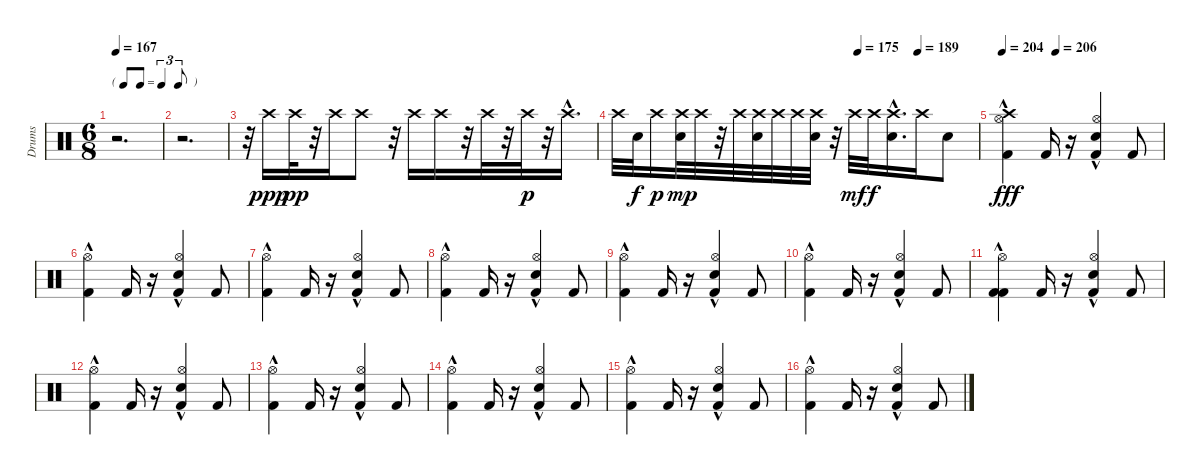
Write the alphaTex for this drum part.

\track ("Drums" "Drums") {instrument percussion}
\staff {score}
\articulation defaults
\ts (6 8)
\tf triplet8th
\tempo 167
\clef neutral
\ks c
r.2{d dy fff} |
r.2{d} |
r.32 "Crash high (hit)".16{dy ppp} "Crash high (hit)".32{dy pp} r.32 "Crash high (hit)".16 "Crash high (hit)".8 r.32 "Crash high (hit)".16 "Crash high (hit)".16 r.32 "Crash high (hit)".32 r.32 "Crash high (hit)".32{dy p} r.32 "Crash high (hit)"{hac}.16{d} |
\tempo (175 0.6666666666666666)
\tempo (189 0.8333333333333334)
"Crash high (hit)".32 "Electric Snare (hit)".32{dy f} "Crash high (hit)".16{dy p} ("Electric Snare (hit)" "Crash high (hit)").32{dy mp} "Crash high (hit)".32 r.32 "Crash high (hit)".32 ("Electric Snare (hit)" "Crash high (hit)").32 "Crash high (hit)".32 "Crash high (hit)".32 ("Crash high (hit)" "Electric Snare (hit)").32 r.32 "Crash high (hit)".32{dy mf} "Crash high (hit)".32{dy f} ("Electric Snare (hit)" "Crash high (hit)"{hac}).16{d} "Crash high (hit)".16 "Snare (hit) 2".8 |
\tempo 204
\tempo (206 0.3333333333333333)
("Hi-Hat (open)" "Crash high (hit)" "Kick (hit) 2"{hac}).4{dy fff} "Kick (hit) 2".16 r.16 ("Hi-Hat (open)" "Snare (hit) 2"{hac} "Kick (hit) 2").4 "Kick (hit) 2".8 |
("Hi-Hat (open)" "Kick (hit) 2"{hac}).4 "Kick (hit) 2".16 r.16 ("Snare (hit) 2"{hac} "Hi-Hat (open)" "Kick (hit) 2").4 "Kick (hit) 2".8 |
("Hi-Hat (open)" "Kick (hit) 2"{hac}).4 "Kick (hit) 2".16 r.16 ("Hi-Hat (open)" "Snare (hit) 2"{hac} "Kick (hit) 2").4 "Kick (hit) 2".8 |
("Hi-Hat (open)" "Kick (hit) 2"{hac}).4 "Kick (hit) 2".16 r.16 ("Hi-Hat (open)" "Snare (hit) 2"{hac} "Kick (hit) 2").4 "Kick (hit) 2".8 |
("Hi-Hat (open)" "Kick (hit) 2"{hac}).4 "Kick (hit) 2".16 r.16 ("Hi-Hat (open)" "Snare (hit) 2"{hac} "Kick (hit) 2").4 "Kick (hit) 2".8 |
("Hi-Hat (open)" "Kick (hit) 2"{hac}).4 "Kick (hit) 2".16 r.16 ("Hi-Hat (open)" "Snare (hit) 2"{hac} "Kick (hit) 2").4 "Kick (hit) 2".8 |
("Hi-Hat (open)" "Kick (hit) 2"{hac} "Kick (hit) 2"{hac}).4 "Kick (hit) 2".16 r.16 ("Snare (hit) 2"{hac} "Kick (hit) 2" "Hi-Hat (open)").4 "Kick (hit) 2".8 |
("Kick (hit) 2"{hac} "Hi-Hat (open)").4 "Kick (hit) 2".16 r.16 ("Snare (hit) 2"{hac} "Kick (hit) 2" "Hi-Hat (open)").4 "Kick (hit) 2".8 |
("Kick (hit) 2"{hac} "Hi-Hat (open)").4 "Kick (hit) 2".16 r.16 ("Snare (hit) 2"{hac} "Kick (hit) 2" "Hi-Hat (open)").4 "Kick (hit) 2".8 |
("Kick (hit) 2"{hac} "Hi-Hat (open)").4 "Kick (hit) 2".16 r.16 ("Snare (hit) 2"{hac} "Kick (hit) 2" "Hi-Hat (open)").4 "Kick (hit) 2".8 |
("Kick (hit) 2"{hac} "Hi-Hat (open)").4 "Kick (hit) 2".16 r.16 ("Snare (hit) 2"{hac} "Kick (hit) 2" "Hi-Hat (open)").4 "Kick (hit) 2".8 |
("Kick (hit) 2"{hac} "Hi-Hat (open)").4 "Kick (hit) 2".16 r.16 ("Snare (hit) 2"{hac} "Kick (hit) 2" "Hi-Hat (open)").4 "Kick (hit) 2".8
